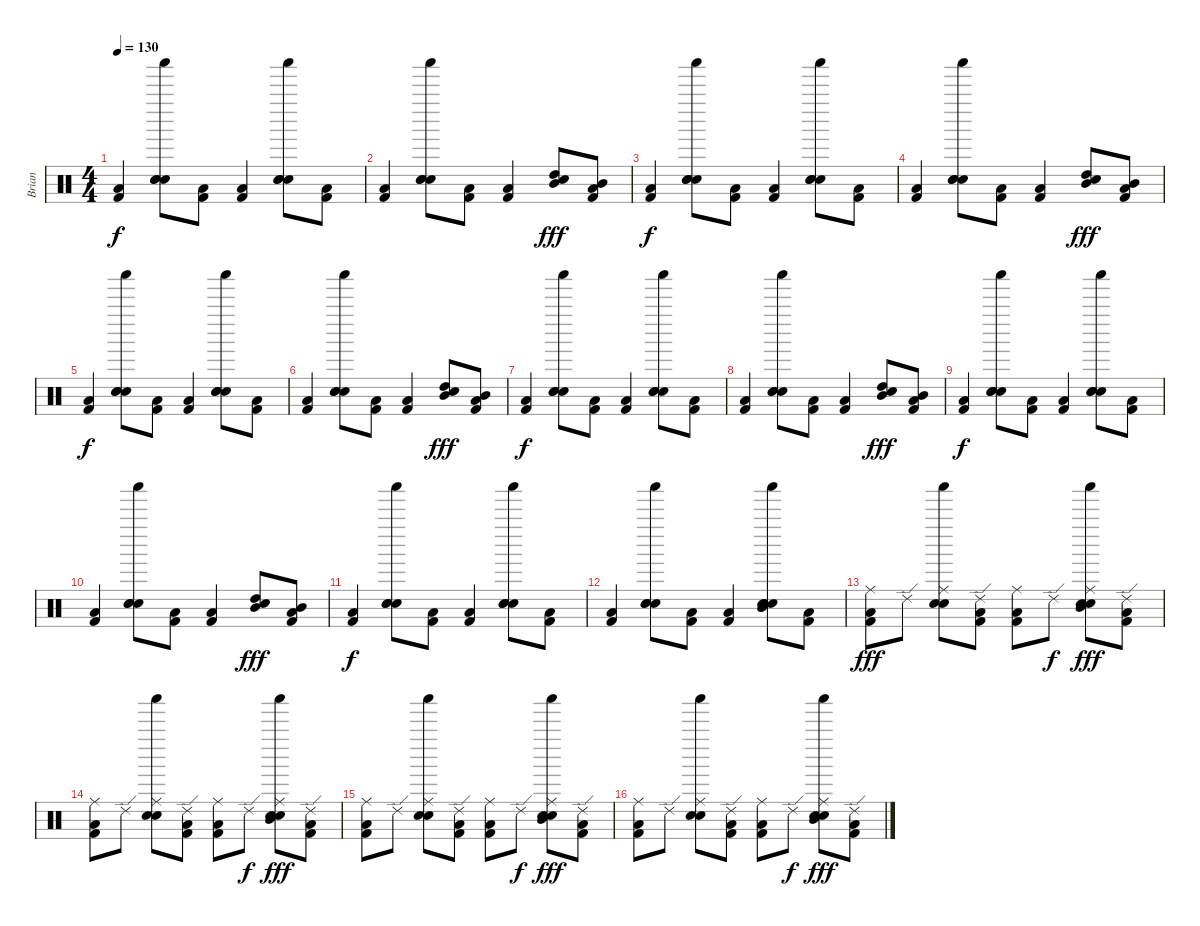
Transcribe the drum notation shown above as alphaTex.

\track ("Brian" "Brian") {instrument percussion}
\staff {score}
\articulation defaults
\ts (4 4)
\tempo 130
\clef neutral
\ks c
("Kick (hit) 2" "Low Tom (hit)").4{dy f} ("Shaker (hit)" "Snare (hit) 2" "Hand Clap (hit)" "Hand Clap (hit)").8 ("Kick (hit) 2" "Low Tom (hit)").8 ("Kick (hit) 2" "Low Tom (hit)").4 ("Shaker (hit)" "Snare (hit) 2" "Hand Clap (hit)" "Hand Clap (hit)").8 ("Kick (hit) 2" "Low Tom (hit)").8 |
("Kick (hit) 2" "Low Tom (hit)").4 ("Shaker (hit)" "Snare (hit) 2" "Hand Clap (hit)" "Hand Clap (hit)").8 ("Kick (hit) 2" "Low Tom (hit)").8 ("Kick (hit) 2" "Low Tom (hit)").4 ("Mid Tom (hit)" "High Tom (hit)" "Hand Clap (hit)").8{dy fff} ("Low Tom (hit)" "Mid Tom (hit)" "Kick (hit) 2").8 |
("Kick (hit) 2" "Low Tom (hit)").4{dy f} ("Shaker (hit)" "Snare (hit) 2" "Hand Clap (hit)" "Hand Clap (hit)").8 ("Kick (hit) 2" "Low Tom (hit)").8 ("Kick (hit) 2" "Low Tom (hit)").4 ("Shaker (hit)" "Snare (hit) 2" "Hand Clap (hit)" "Hand Clap (hit)").8 ("Kick (hit) 2" "Low Tom (hit)").8 |
("Kick (hit) 2" "Low Tom (hit)").4 ("Shaker (hit)" "Snare (hit) 2" "Hand Clap (hit)" "Hand Clap (hit)").8 ("Kick (hit) 2" "Low Tom (hit)").8 ("Kick (hit) 2" "Low Tom (hit)").4 ("Mid Tom (hit)" "High Tom (hit)" "Hand Clap (hit)").8{dy fff} ("Low Tom (hit)" "Mid Tom (hit)" "Kick (hit) 2").8 |
("Kick (hit) 2" "Low Tom (hit)").4{dy f} ("Shaker (hit)" "Snare (hit) 2" "Hand Clap (hit)" "Hand Clap (hit)").8 ("Kick (hit) 2" "Low Tom (hit)").8 ("Kick (hit) 2" "Low Tom (hit)").4 ("Shaker (hit)" "Snare (hit) 2" "Hand Clap (hit)" "Hand Clap (hit)").8 ("Kick (hit) 2" "Low Tom (hit)").8 |
("Kick (hit) 2" "Low Tom (hit)").4 ("Shaker (hit)" "Snare (hit) 2" "Hand Clap (hit)" "Hand Clap (hit)").8 ("Kick (hit) 2" "Low Tom (hit)").8 ("Kick (hit) 2" "Low Tom (hit)").4 ("Mid Tom (hit)" "High Tom (hit)" "Hand Clap (hit)").8{dy fff} ("Low Tom (hit)" "Mid Tom (hit)" "Kick (hit) 2").8 |
("Kick (hit) 2" "Low Tom (hit)").4{dy f} ("Shaker (hit)" "Snare (hit) 2" "Hand Clap (hit)" "Hand Clap (hit)").8 ("Kick (hit) 2" "Low Tom (hit)").8 ("Kick (hit) 2" "Low Tom (hit)").4 ("Shaker (hit)" "Snare (hit) 2" "Hand Clap (hit)" "Hand Clap (hit)").8 ("Kick (hit) 2" "Low Tom (hit)").8 |
("Kick (hit) 2" "Low Tom (hit)").4 ("Shaker (hit)" "Snare (hit) 2" "Hand Clap (hit)" "Hand Clap (hit)").8 ("Kick (hit) 2" "Low Tom (hit)").8 ("Kick (hit) 2" "Low Tom (hit)").4 ("Mid Tom (hit)" "High Tom (hit)" "Hand Clap (hit)").8{dy fff} ("Low Tom (hit)" "Mid Tom (hit)" "Kick (hit) 2").8 |
("Kick (hit) 2" "Low Tom (hit)").4{dy f} ("Shaker (hit)" "Snare (hit) 2" "Hand Clap (hit)" "Hand Clap (hit)").8 ("Kick (hit) 2" "Low Tom (hit)").8 ("Kick (hit) 2" "Low Tom (hit)").4 ("Shaker (hit)" "Snare (hit) 2" "Hand Clap (hit)" "Hand Clap (hit)").8 ("Kick (hit) 2" "Low Tom (hit)").8 |
("Kick (hit) 2" "Low Tom (hit)").4 ("Shaker (hit)" "Snare (hit) 2" "Hand Clap (hit)" "Hand Clap (hit)").8 ("Kick (hit) 2" "Low Tom (hit)").8 ("Kick (hit) 2" "Low Tom (hit)").4 ("Mid Tom (hit)" "High Tom (hit)" "Hand Clap (hit)").8{dy fff} ("Low Tom (hit)" "Mid Tom (hit)" "Kick (hit) 2").8 |
("Kick (hit) 2" "Low Tom (hit)").4{dy f} ("Shaker (hit)" "Snare (hit) 2" "Hand Clap (hit)" "Hand Clap (hit)").8 ("Kick (hit) 2" "Low Tom (hit)").8 ("Kick (hit) 2" "Low Tom (hit)").4 ("Shaker (hit)" "Snare (hit) 2" "Hand Clap (hit)" "Hand Clap (hit)").8 ("Kick (hit) 2" "Low Tom (hit)").8 |
("Kick (hit) 2" "Low Tom (hit)").4 ("Shaker (hit)" "Snare (hit) 2" "Hand Clap (hit)" "Hand Clap (hit)").8 ("Kick (hit) 2" "Low Tom (hit)").8 ("Kick (hit) 2" "Low Tom (hit)").4 ("Shaker (hit)" "Snare (hit) 2" "Hand Clap (hit)" "Hand Clap (hit)" "Mid Tom (hit)" "Mid Tom (hit)").8 ("Kick (hit) 2" "Low Tom (hit)").8 |
("Ride (middle)" "Low Tom (hit)" "Kick (hit) 2").8{dy fff} "Ride (edge) 2".8 ("Shaker (hit)" "Ride (middle)" "Hand Clap (hit)" "Snare (hit) 2").8 ("Ride (edge) 2" "Low Tom (hit)" "Kick (hit) 2").8 ("Ride (middle)" "Low Tom (hit)" "Kick (hit) 2").8 "Ride (edge) 2".8{dy f} ("Shaker (hit)" "Ride (middle)" "Hand Clap (hit)" "Snare (hit) 2" "Mid Tom (hit)").8{dy fff} ("Ride (edge) 2" "Kick (hit) 2" "Low Tom (hit)").8 |
("Ride (middle)" "Low Tom (hit)" "Kick (hit) 2").8 "Ride (edge) 2".8 ("Shaker (hit)" "Ride (middle)" "Hand Clap (hit)" "Snare (hit) 2").8 ("Ride (edge) 2" "Low Tom (hit)" "Kick (hit) 2").8 ("Ride (middle)" "Low Tom (hit)" "Kick (hit) 2").8 "Ride (edge) 2".8{dy f} ("Shaker (hit)" "Ride (middle)" "Hand Clap (hit)" "Snare (hit) 2" "Mid Tom (hit)").8{dy fff} ("Ride (edge) 2" "Kick (hit) 2" "Low Tom (hit)").8 |
("Ride (middle)" "Low Tom (hit)" "Kick (hit) 2").8 "Ride (edge) 2".8 ("Shaker (hit)" "Ride (middle)" "Hand Clap (hit)" "Snare (hit) 2").8 ("Ride (edge) 2" "Low Tom (hit)" "Kick (hit) 2").8 ("Ride (middle)" "Low Tom (hit)" "Kick (hit) 2").8 "Ride (edge) 2".8{dy f} ("Shaker (hit)" "Ride (middle)" "Hand Clap (hit)" "Snare (hit) 2" "Mid Tom (hit)").8{dy fff} ("Ride (edge) 2" "Kick (hit) 2" "Low Tom (hit)").8 |
("Ride (middle)" "Low Tom (hit)" "Kick (hit) 2").8 "Ride (edge) 2".8 ("Shaker (hit)" "Ride (middle)" "Hand Clap (hit)" "Snare (hit) 2").8 ("Ride (edge) 2" "Low Tom (hit)" "Kick (hit) 2").8 ("Ride (middle)" "Low Tom (hit)" "Kick (hit) 2").8 "Ride (edge) 2".8{dy f} ("Shaker (hit)" "Ride (middle)" "Hand Clap (hit)" "Snare (hit) 2" "Mid Tom (hit)").8{dy fff} ("Ride (edge) 2" "Kick (hit) 2" "Low Tom (hit)").8
